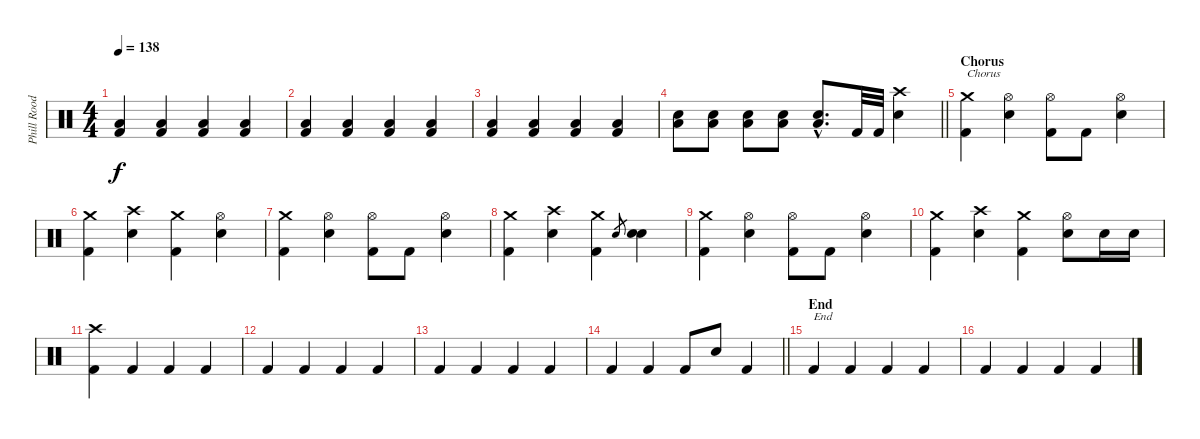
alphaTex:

\track ("Phill Rood" "Phill Rood") {instrument percussion}
\staff {score}
\articulation defaults
\ts (4 4)
\tempo 138
\clef neutral
\ks c
("Kick (hit) 2" "Low Tom (hit)").4{dy f} ("Kick (hit) 2" "Low Tom (hit)").4 ("Kick (hit) 2" "Low Tom (hit)").4 ("Kick (hit) 2" "Low Tom (hit)").4 |
("Kick (hit) 2" "Low Tom (hit)").4 ("Kick (hit) 2" "Low Tom (hit)").4 ("Kick (hit) 2" "Low Tom (hit)").4 ("Kick (hit) 2" "Low Tom (hit)").4 |
("Kick (hit) 2" "Low Tom (hit)").4 ("Kick (hit) 2" "Low Tom (hit)").4 ("Kick (hit) 2" "Low Tom (hit)").4 ("Kick (hit) 2" "Low Tom (hit)").4 |
\barLineRight lightlight
("Snare (hit) 2" "Low Tom (hit)").8 ("Snare (hit) 2" "Low Tom (hit)").8 ("Snare (hit) 2" "Low Tom (hit)").8 ("Snare (hit) 2" "Low Tom (hit)").8 ("Snare (hit) 2"{hac} "Low Tom (hit)"{hac}).8{d} "Kick (hit) 2".32 "Kick (hit) 2".32 ("Snare (hit) 2" "Crash high (hit)").4 |
\section ("" "Chorus")
("Kick (hit) 2" "Crash medium (hit)").4{txt "Chorus"} ("Snare (hit) 2" "Hi-Hat (open)").4 ("Kick (hit) 2" "Hi-Hat (open)").8 "Kick (hit) 2".8 ("Snare (hit) 2" "Hi-Hat (open)").4 |
("Kick (hit) 2" "Crash medium (hit)").4 ("Snare (hit) 2" "Crash high (hit)").4 ("Kick (hit) 2" "Crash medium (hit)").4 ("Snare (hit) 2" "Hi-Hat (open)").4 |
("Kick (hit) 2" "Crash medium (hit)").4 ("Snare (hit) 2" "Hi-Hat (open)").4 ("Kick (hit) 2" "Hi-Hat (open)").8 "Kick (hit) 2".8 ("Snare (hit) 2" "Hi-Hat (open)").4 |
("Kick (hit) 2" "Crash medium (hit)").4 ("Snare (hit) 2" "Crash high (hit)").4 ("Kick (hit) 2" "Crash medium (hit)").4 "Snare (hit) 2".8{gr} ("Snare (hit) 2" "Snare (hit) 2").4 |
("Kick (hit) 2" "Crash medium (hit)").4 ("Snare (hit) 2" "Hi-Hat (open)").4 ("Kick (hit) 2" "Hi-Hat (open)").8 "Kick (hit) 2".8 ("Snare (hit) 2" "Hi-Hat (open)").4 |
("Kick (hit) 2" "Crash medium (hit)").4 ("Snare (hit) 2" "Crash high (hit)").4 ("Kick (hit) 2" "Crash medium (hit)").4 ("Snare (hit) 2" "Hi-Hat (open)").8 "Snare (hit) 2".16 "Snare (hit) 2".16 |
("Kick (hit) 2" "Crash high (hit)").4 "Kick (hit) 2".4 "Kick (hit) 2".4 "Kick (hit) 2".4 |
"Kick (hit) 2".4 "Kick (hit) 2".4 "Kick (hit) 2".4 "Kick (hit) 2".4 |
"Kick (hit) 2".4 "Kick (hit) 2".4 "Kick (hit) 2".4 "Kick (hit) 2".4 |
\barLineRight lightlight "Kick (hit) 2".4 "Kick (hit) 2".4 "Kick (hit) 2".8 "Snare (hit) 2".8 "Kick (hit) 2".4
|
\section ("" "End")
"Kick (hit) 2".4{txt "End"} "Kick (hit) 2".4 "Kick (hit) 2".4 "Kick (hit) 2".4 |
"Kick (hit) 2".4 "Kick (hit) 2".4 "Kick (hit) 2".4 "Kick (hit) 2".4
